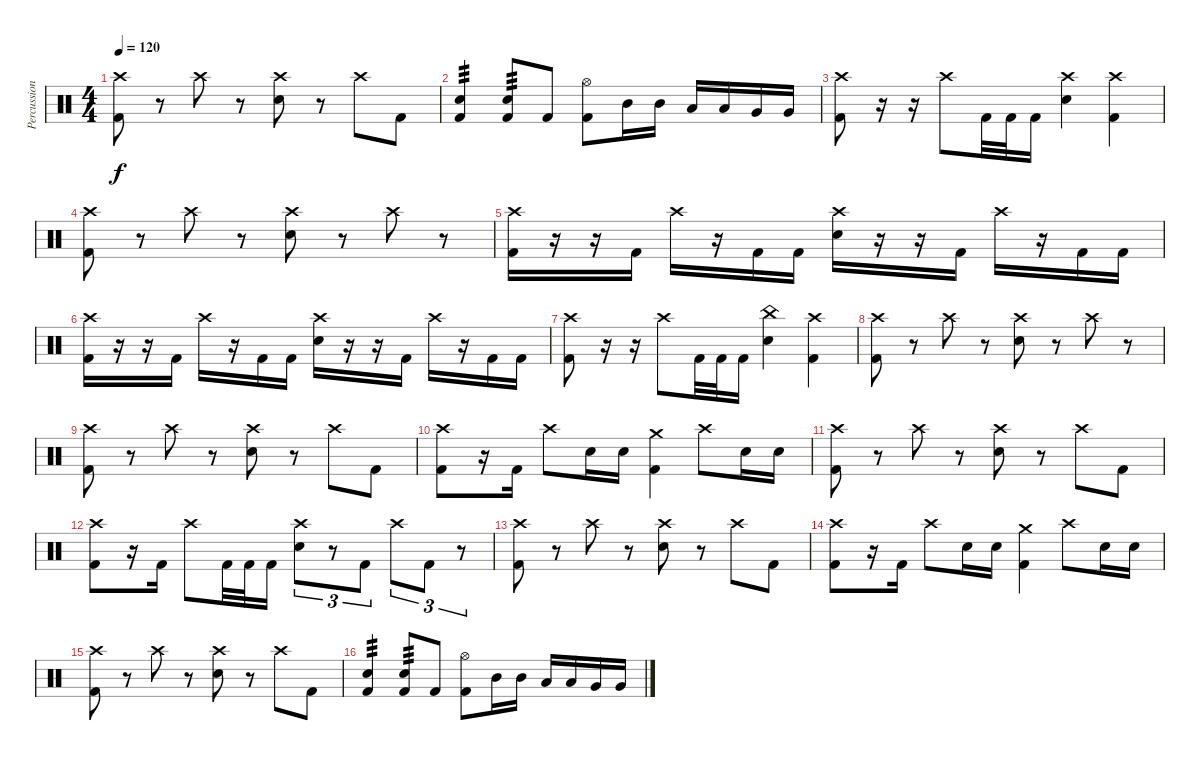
\track ("Percussion" "Percussion") {instrument percussion}
\staff {score}
\articulation defaults
\ts (4 4)
\tempo 120
\clef neutral
\ks c
("Crash high (hit)" "Kick (hit) 2").8{dy f} r.8 "Crash high (hit)".8 r.8 ("Crash high (hit)" "Snare (hit) 2").8 r.8 "Crash high (hit)".8 "Kick (hit) 2".8 |
("Snare (hit) 2" "Kick (hit) 2").4{tp 3} ("Snare (hit) 2" "Kick (hit) 2").8{tp 3} "Kick (hit) 2".8 ("Hi-Hat (open)" "Kick (hit) 2").8 "Mid Tom (hit)".16 "Mid Tom (hit)".16 "Low Tom (hit)".16 "Low Tom (hit)".16 "Very Low Tom (hit)".16 "Very Low Tom (hit)".16 |
("Crash high (hit)" "Kick (hit) 2").8 r.16 r.16 "Crash high (hit)".8 "Kick (hit) 2".32 "Kick (hit) 2".32 "Kick (hit) 2".16 ("Crash high (hit)" "Snare (hit) 2").4 ("Crash high (hit)" "Kick (hit) 2").4 |
("Crash high (hit)" "Kick (hit) 2").8 r.8 "Crash high (hit)".8 r.8 ("Crash high (hit)" "Snare (hit) 2").8 r.8 "Crash high (hit)".8 r.8 |
("Crash high (hit)" "Kick (hit) 2").16 r.16 r.16 "Kick (hit) 2".16 "Crash high (hit)".16 r.16 "Kick (hit) 2".16 "Kick (hit) 2".16 ("Crash high (hit)" "Snare (hit) 2").16 r.16 r.16 "Kick (hit) 2".16 "Crash high (hit)".16 r.16 "Kick (hit) 2".16 "Kick (hit) 2".16 |
("Crash high (hit)" "Kick (hit) 2").16 r.16 r.16 "Kick (hit) 2".16 "Crash high (hit)".16 r.16 "Kick (hit) 2".16 "Kick (hit) 2".16 ("Crash high (hit)" "Snare (hit) 2").16 r.16 r.16 "Kick (hit) 2".16 "Crash high (hit)".16 r.16 "Kick (hit) 2".16 "Kick (hit) 2".16 |
("Crash high (hit)" "Kick (hit) 2").8 r.16 r.16 "Crash high (hit)".8 "Kick (hit) 2".32 "Kick (hit) 2".32 "Kick (hit) 2".16 ("China (hit)" "Snare (hit) 2").4 ("Crash high (hit)" "Kick (hit) 2").4 |
("Crash high (hit)" "Kick (hit) 2").8 r.8 "Crash high (hit)".8 r.8 ("Crash high (hit)" "Snare (hit) 2").8 r.8 "Crash high (hit)".8 r.8 |
("Crash high (hit)" "Kick (hit) 2").8 r.8 "Crash high (hit)".8 r.8 ("Crash high (hit)" "Snare (hit) 2").8 r.8 "Crash high (hit)".8 "Kick (hit) 2".8 |
("Crash high (hit)" "Kick (hit) 2").8 r.16 "Kick (hit) 2".16 "Crash high (hit)".8 "Snare (hit) 2".16 "Snare (hit) 2".16 ("Crash medium (hit)" "Kick (hit) 2").4 "Crash high (hit)".8 "Snare (hit) 2".16 "Snare (hit) 2".16 |
("Crash high (hit)" "Kick (hit) 2").8 r.8 "Crash high (hit)".8 r.8 ("Crash high (hit)" "Snare (hit) 2").8 r.8 "Crash high (hit)".8 "Kick (hit) 2".8 |
("Crash high (hit)" "Kick (hit) 2").8 r.16 "Kick (hit) 2".16 "Crash high (hit)".8 "Kick (hit) 2".32 "Kick (hit) 2".32 "Kick (hit) 2".16 ("Crash high (hit)" "Snare (hit) 2").8{tu (3 2)} r.8{tu (3 2)} "Kick (hit) 2".8{tu (3 2)} "Crash high (hit)".8{tu (3 2)} "Kick (hit) 2".8{tu (3 2)} r.8{tu (3 2)} |
("Crash high (hit)" "Kick (hit) 2").8 r.8 "Crash high (hit)".8 r.8 ("Crash high (hit)" "Snare (hit) 2").8 r.8 "Crash high (hit)".8 "Kick (hit) 2".8 |
("Crash high (hit)" "Kick (hit) 2").8 r.16 "Kick (hit) 2".16 "Crash high (hit)".8 "Snare (hit) 2".16 "Snare (hit) 2".16 ("Crash medium (hit)" "Kick (hit) 2").4 "Crash high (hit)".8 "Snare (hit) 2".16 "Snare (hit) 2".16 |
("Crash high (hit)" "Kick (hit) 2").8 r.8 "Crash high (hit)".8 r.8 ("Crash high (hit)" "Snare (hit) 2").8 r.8 "Crash high (hit)".8 "Kick (hit) 2".8 |
("Snare (hit) 2" "Kick (hit) 2").4{tp 3} ("Snare (hit) 2" "Kick (hit) 2").8{tp 3} "Kick (hit) 2".8 ("Hi-Hat (open)" "Kick (hit) 2").8 "Mid Tom (hit)".16 "Mid Tom (hit)".16 "Low Tom (hit)".16 "Low Tom (hit)".16 "Very Low Tom (hit)".16 "Very Low Tom (hit)".16
